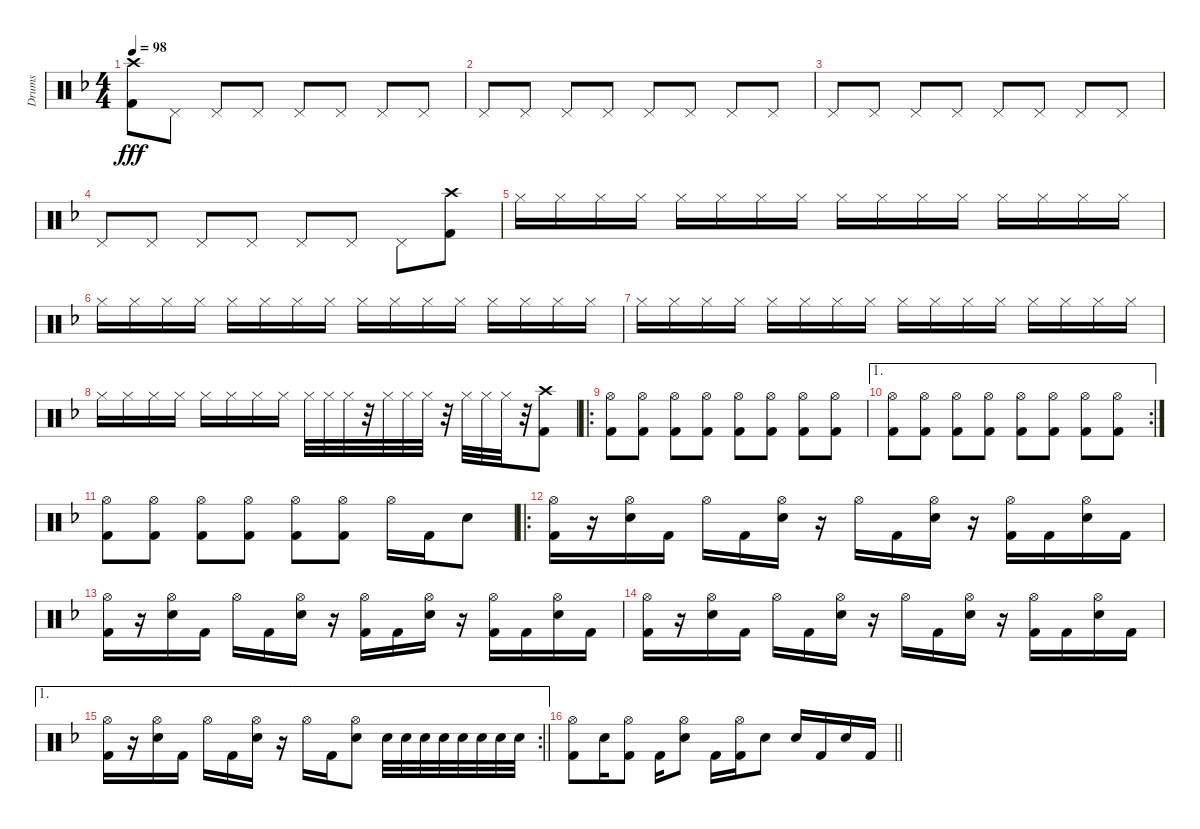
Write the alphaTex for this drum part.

\track ("Drums" "Drums") {instrument percussion}
\staff {score}
\articulation defaults
\ts (4 4)
\tempo 98
\clef neutral
\ks f
("Crash high (hit)" "Kick (hit) 2").8{dy fff} "Pedal Hi-Hat (hit)".8 "Pedal Hi-Hat (hit)".8 "Pedal Hi-Hat (hit)".8 "Pedal Hi-Hat (hit)".8 "Pedal Hi-Hat (hit)".8 "Pedal Hi-Hat (hit)".8 "Pedal Hi-Hat (hit)".8 |
"Pedal Hi-Hat (hit)".8 "Pedal Hi-Hat (hit)".8 "Pedal Hi-Hat (hit)".8 "Pedal Hi-Hat (hit)".8 "Pedal Hi-Hat (hit)".8 "Pedal Hi-Hat (hit)".8 "Pedal Hi-Hat (hit)".8 "Pedal Hi-Hat (hit)".8 |
"Pedal Hi-Hat (hit)".8 "Pedal Hi-Hat (hit)".8 "Pedal Hi-Hat (hit)".8 "Pedal Hi-Hat (hit)".8 "Pedal Hi-Hat (hit)".8 "Pedal Hi-Hat (hit)".8 "Pedal Hi-Hat (hit)".8 "Pedal Hi-Hat (hit)".8 |
"Pedal Hi-Hat (hit)".8 "Pedal Hi-Hat (hit)".8 "Pedal Hi-Hat (hit)".8 "Pedal Hi-Hat (hit)".8 "Pedal Hi-Hat (hit)".8 "Pedal Hi-Hat (hit)".8 "Pedal Hi-Hat (hit)".8 ("Crash high (hit)" "Kick (hit) 2").8 |
"Hi-Hat (closed)".16 "Hi-Hat (closed)".16 "Hi-Hat (closed)".16 "Hi-Hat (closed)".16 "Hi-Hat (closed)".16 "Hi-Hat (closed)".16 "Hi-Hat (closed)".16 "Hi-Hat (closed)".16 "Hi-Hat (closed)".16 "Hi-Hat (closed)".16 "Hi-Hat (closed)".16 "Hi-Hat (closed)".16 "Hi-Hat (closed)".16 "Hi-Hat (closed)".16 "Hi-Hat (closed)".16 "Hi-Hat (closed)".16 |
"Hi-Hat (closed)".16 "Hi-Hat (closed)".16 "Hi-Hat (closed)".16 "Hi-Hat (closed)".16 "Hi-Hat (closed)".16 "Hi-Hat (closed)".16 "Hi-Hat (closed)".16 "Hi-Hat (closed)".16 "Hi-Hat (closed)".16 "Hi-Hat (closed)".16 "Hi-Hat (closed)".16 "Hi-Hat (closed)".16 "Hi-Hat (closed)".16 "Hi-Hat (closed)".16 "Hi-Hat (closed)".16 "Hi-Hat (closed)".16 |
"Hi-Hat (closed)".16 "Hi-Hat (closed)".16 "Hi-Hat (closed)".16 "Hi-Hat (closed)".16 "Hi-Hat (closed)".16 "Hi-Hat (closed)".16 "Hi-Hat (closed)".16 "Hi-Hat (closed)".16 "Hi-Hat (closed)".16 "Hi-Hat (closed)".16 "Hi-Hat (closed)".16 "Hi-Hat (closed)".16 "Hi-Hat (closed)".16 "Hi-Hat (closed)".16 "Hi-Hat (closed)".16 "Hi-Hat (closed)".16 |
"Hi-Hat (closed)".16 "Hi-Hat (closed)".16 "Hi-Hat (closed)".16 "Hi-Hat (closed)".16 "Hi-Hat (closed)".16 "Hi-Hat (closed)".16 "Hi-Hat (closed)".16 "Hi-Hat (closed)".16 "Hi-Hat (closed)".32 "Hi-Hat (closed)".32 "Hi-Hat (closed)".32 r.32 "Hi-Hat (closed)".32 "Hi-Hat (closed)".32 "Hi-Hat (closed)".32 r.32 "Hi-Hat (closed)".32 "Hi-Hat (closed)".32 "Hi-Hat (closed)".32 r.32 ("Crash high (hit)" "Kick (hit) 2").8 |
\ro
("Kick (hit) 2" "Hi-Hat (open)").8 ("Kick (hit) 2" "Hi-Hat (open)").8 ("Kick (hit) 2" "Hi-Hat (open)").8 ("Kick (hit) 2" "Hi-Hat (open)").8 ("Kick (hit) 2" "Hi-Hat (open)").8 ("Kick (hit) 2" "Hi-Hat (open)").8 ("Kick (hit) 2" "Hi-Hat (open)").8 ("Kick (hit) 2" "Hi-Hat (open)").8 |
\ae 1
\rc 2
("Kick (hit) 2" "Hi-Hat (open)").8 ("Kick (hit) 2" "Hi-Hat (open)").8 ("Kick (hit) 2" "Hi-Hat (open)").8 ("Kick (hit) 2" "Hi-Hat (open)").8 ("Kick (hit) 2" "Hi-Hat (open)").8 ("Kick (hit) 2" "Hi-Hat (open)").8 ("Kick (hit) 2" "Hi-Hat (open)").8 ("Kick (hit) 2" "Hi-Hat (open)").8 |
("Kick (hit) 2" "Hi-Hat (open)").8 ("Kick (hit) 2" "Hi-Hat (open)").8 ("Kick (hit) 2" "Hi-Hat (open)").8 ("Kick (hit) 2" "Hi-Hat (open)").8 ("Kick (hit) 2" "Hi-Hat (open)").8 ("Kick (hit) 2" "Hi-Hat (open)").8 "Hi-Hat (open)".16 "Kick (hit) 2".16 "Snare (hit) 2".8 |
\ro
("Hi-Hat (open)" "Kick (hit) 2").16 r.16 ("Hi-Hat (open)" "Snare (hit) 2").16 "Kick (hit) 2".16 "Hi-Hat (open)".16 "Kick (hit) 2".16 ("Hi-Hat (open)" "Snare (hit) 2").16 r.16 "Hi-Hat (open)".16 "Kick (hit) 2".16 ("Hi-Hat (open)" "Snare (hit) 2").16 r.16 ("Hi-Hat (open)" "Kick (hit) 2").16 "Kick (hit) 2".16 ("Hi-Hat (open)" "Snare (hit) 2").16 "Kick (hit) 2".16 |
("Hi-Hat (open)" "Kick (hit) 2").16 r.16 ("Hi-Hat (open)" "Snare (hit) 2").16 "Kick (hit) 2".16 "Hi-Hat (open)".16 "Kick (hit) 2".16 ("Hi-Hat (open)" "Snare (hit) 2").16 r.16 ("Hi-Hat (open)" "Kick (hit) 2").16 "Kick (hit) 2".16 ("Hi-Hat (open)" "Snare (hit) 2").16 r.16 ("Hi-Hat (open)" "Kick (hit) 2").16 "Kick (hit) 2".16 ("Hi-Hat (open)" "Snare (hit) 2").16 "Kick (hit) 2".16 |
("Hi-Hat (open)" "Kick (hit) 2").16 r.16 ("Hi-Hat (open)" "Snare (hit) 2").16 "Kick (hit) 2".16 "Hi-Hat (open)".16 "Kick (hit) 2".16 ("Hi-Hat (open)" "Snare (hit) 2").16 r.16 "Hi-Hat (open)".16 "Kick (hit) 2".16 ("Hi-Hat (open)" "Snare (hit) 2").16 r.16 ("Hi-Hat (open)" "Kick (hit) 2").16 "Kick (hit) 2".16 ("Hi-Hat (open)" "Snare (hit) 2").16 "Kick (hit) 2".16 |
\ae 1
\rc 2
\barLineRight lightlight
("Hi-Hat (open)" "Kick (hit) 2").16 r.16 ("Hi-Hat (open)" "Snare (hit) 2").16 "Kick (hit) 2".16 "Hi-Hat (open)".16 "Kick (hit) 2".16 ("Hi-Hat (open)" "Snare (hit) 2").16 r.16 "Hi-Hat (open)".16 "Kick (hit) 2".16 ("Hi-Hat (open)" "Snare (hit) 2").8 "Snare (hit) 2".32 "Snare (hit) 2".32 "Snare (hit) 2".32 "Snare (hit) 2".32 "Snare (hit) 2".32 "Snare (hit) 2".32 "Snare (hit) 2".32 "Snare (hit) 2".32 |
\barLineRight lightlight
("Hi-Hat (open)" "Kick (hit) 2").8 "Snare (hit) 2".16 ("Hi-Hat (open)" "Kick (hit) 2").8 "Kick (hit) 2".16 ("Hi-Hat (open)" "Snare (hit) 2").8 "Kick (hit) 2".16 ("Hi-Hat (open)" "Kick (hit) 2").16 "Snare (hit) 2".8 "Snare (hit) 2".16 "Kick (hit) 2".16 "Snare (hit) 2".16 "Kick (hit) 2".16
